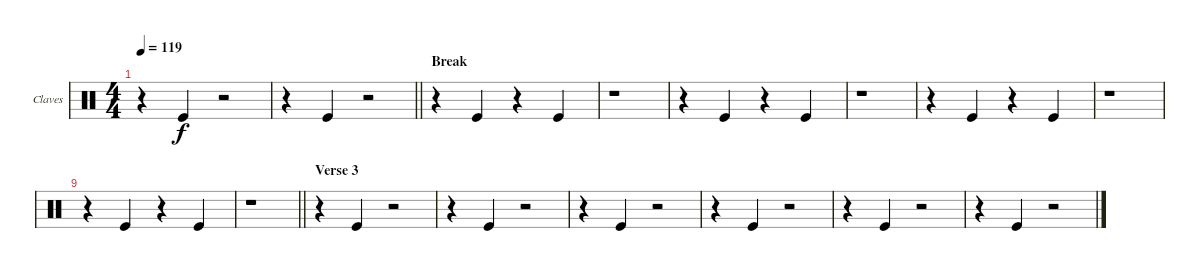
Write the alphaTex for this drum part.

\defaultSystemsLayout 4
\bracketExtendMode groupsimilarinstruments
\useSystemSignSeparator
\multiBarRest
\multiTrackTrackNamePolicy allsystems
\firstSystemTrackNameMode fullname
\firstSystemTrackNameOrientation horizontal
\otherSystemsTrackNameOrientation horizontal
\defaultBarNumberDisplay FirstOfSystem
\track ("Claves" "Claves") {multiBarRest instrument percussion}
\staff {score}
\articulation defaults
\ts (4 4)
\tempo 119
\clef neutral
\ks aminor
r.4{dy f} "Kick (hit)".4 r.2 |
\barLineRight lightlight
r.4 "Kick (hit)".4 r.2 |
\section ("" "Break")
r.4 "Kick (hit)".4 r.4 "Kick (hit)".4 |
r.1 |
r.4 "Kick (hit)".4 r.4 "Kick (hit)".4 |
r.1 |
r.4 "Kick (hit)".4 r.4 "Kick (hit)".4 |
r.1 |
r.4 "Kick (hit)".4 r.4 "Kick (hit)".4 |
\barLineRight lightlight
r.1 |
\section ("" "Verse 3")
r.4 "Kick (hit)".4 r.2 |
r.4 "Kick (hit)".4 r.2 |
r.4 "Kick (hit)".4 r.2 |
r.4 "Kick (hit)".4 r.2 |
r.4 "Kick (hit)".4 r.2 |
r.4 "Kick (hit)".4 r.2
